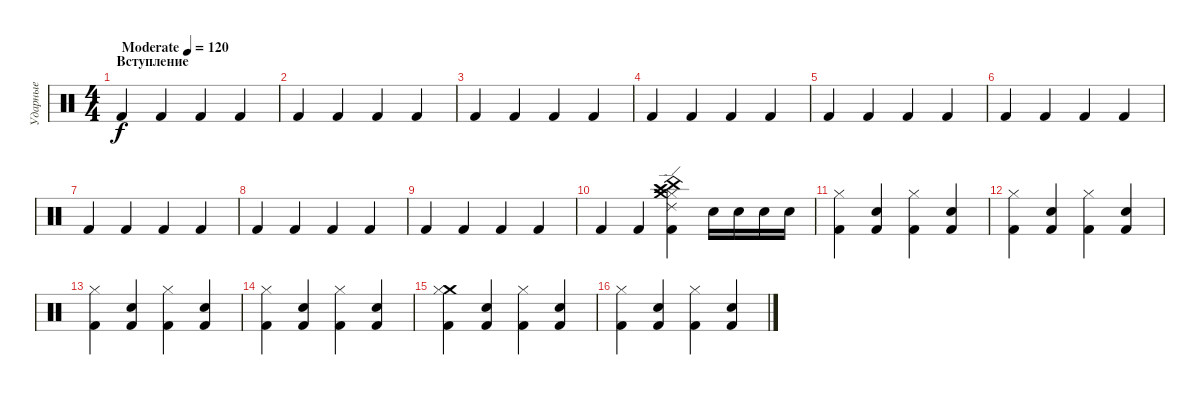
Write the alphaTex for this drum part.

\track ("Ударные" "Ударные") {instrument percussion}
\staff {score}
\articulation defaults
\ts (4 4)
\section ("" "Вступление")
\tempo (120 "Moderate")
\clef neutral
\ks c "Kick (hit) 2".4{dy f} "Kick (hit) 2".4 "Kick (hit) 2".4 "Kick (hit) 2".4
|
"Kick (hit) 2".4 "Kick (hit) 2".4 "Kick (hit) 2".4 "Kick (hit) 2".4 |
"Kick (hit) 2".4 "Kick (hit) 2".4 "Kick (hit) 2".4 "Kick (hit) 2".4 |
"Kick (hit) 2".4 "Kick (hit) 2".4 "Kick (hit) 2".4 "Kick (hit) 2".4 |
"Kick (hit) 2".4 "Kick (hit) 2".4 "Kick (hit) 2".4 "Kick (hit) 2".4 |
"Kick (hit) 2".4 "Kick (hit) 2".4 "Kick (hit) 2".4 "Kick (hit) 2".4 |
"Kick (hit) 2".4 "Kick (hit) 2".4 "Kick (hit) 2".4 "Kick (hit) 2".4 |
"Kick (hit) 2".4 "Kick (hit) 2".4 "Kick (hit) 2".4 "Kick (hit) 2".4 |
"Kick (hit) 2".4 "Kick (hit) 2".4 "Kick (hit) 2".4 "Kick (hit) 2".4 |
"Kick (hit) 2".4 "Kick (hit) 2".4 ("China (hit)" "Hi-Hat (closed)" "Ride (edge) 2" "Crash high (hit)" "Crash medium (hit)" "Kick (hit) 2").4 "Snare (hit) 2".16 "Snare (hit) 2".16 "Snare (hit) 2".16 "Snare (hit) 2".16 |
("Hi-Hat (closed)" "Kick (hit) 2").4 ("Snare (hit) 2" "Kick (hit) 2").4 ("Hi-Hat (closed)" "Kick (hit) 2").4 ("Snare (hit) 2" "Kick (hit) 2").4 |
("Hi-Hat (closed)" "Kick (hit) 2").4 ("Snare (hit) 2" "Kick (hit) 2").4 ("Hi-Hat (closed)" "Kick (hit) 2").4 ("Snare (hit) 2" "Kick (hit) 2").4 |
("Hi-Hat (closed)" "Kick (hit) 2").4 ("Snare (hit) 2" "Kick (hit) 2").4 ("Hi-Hat (closed)" "Kick (hit) 2").4 ("Snare (hit) 2" "Kick (hit) 2").4 |
("Hi-Hat (closed)" "Kick (hit) 2").4 ("Snare (hit) 2" "Kick (hit) 2").4 ("Hi-Hat (closed)" "Kick (hit) 2").4 ("Snare (hit) 2" "Kick (hit) 2").4 |
("Crash medium (hit)" "Hi-Hat (closed)" "Kick (hit) 2").4 ("Snare (hit) 2" "Kick (hit) 2").4 ("Hi-Hat (closed)" "Kick (hit) 2").4 ("Snare (hit) 2" "Kick (hit) 2").4 |
("Hi-Hat (closed)" "Kick (hit) 2").4 ("Snare (hit) 2" "Kick (hit) 2").4 ("Hi-Hat (closed)" "Kick (hit) 2").4 ("Snare (hit) 2" "Kick (hit) 2").4
